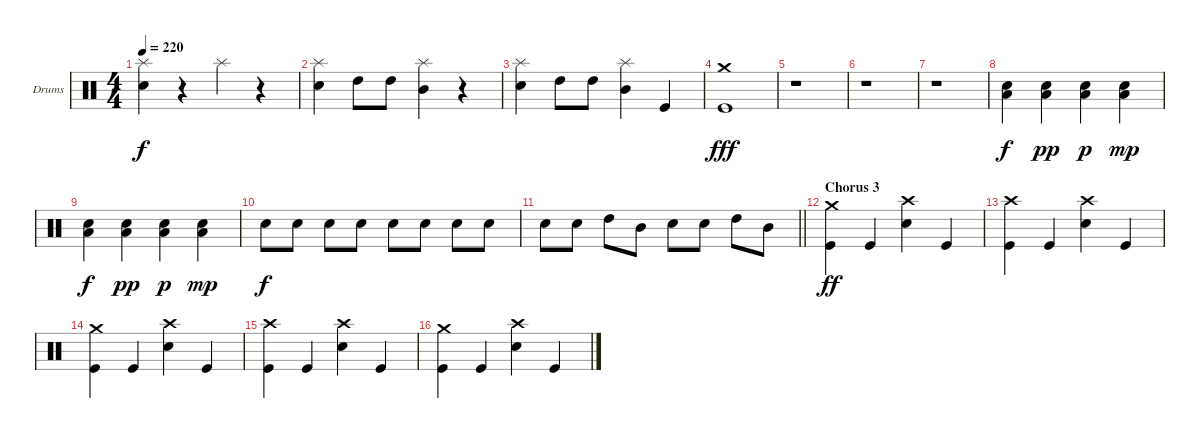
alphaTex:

\bracketExtendMode groupsimilarinstruments
\firstSystemTrackNameOrientation horizontal
\otherSystemsTrackNameOrientation horizontal
\track ("Drumkit" "Drums") {instrument percussion}
\staff {score}
\articulation defaults
\ts (4 4)
\tempo 220
\clef neutral
\ks c
("Splash (hit)" "Snare (hit) 2").4{dy f} r.4 "Splash (hit)".4 r.4 |
("Splash (hit)" "Snare (hit) 2").4 "High Tom (hit)".8 "High Tom (hit)".8 ("Splash (hit)" "Mid Tom (hit)").4 r.4 |
("Splash (hit)" "Snare (hit) 2").4 "High Tom (hit)".8 "High Tom (hit)".8 ("Splash (hit)" "Mid Tom (hit)").4 "Kick (hit)".4 |
("Crash medium (hit)" "Kick (hit)").1{dy fff} |
r.1 |
r.1 |
r.1 |
("Snare (hit) 2" "Low Tom (hit)").4{dy f} ("Snare (hit) 2" "Low Tom (hit)").4{dy pp} ("Snare (hit) 2" "Low Tom (hit)").4{dy p} ("Snare (hit) 2" "Low Tom (hit)").4{dy mp} |
("Snare (hit) 2" "Low Tom (hit)").4{dy f} ("Snare (hit) 2" "Low Tom (hit)").4{dy pp} ("Snare (hit) 2" "Low Tom (hit)").4{dy p} ("Snare (hit) 2" "Low Tom (hit)").4{dy mp} |
"Snare (hit) 2".8{dy f} "Snare (hit) 2".8 "Snare (hit) 2".8 "Snare (hit) 2".8 "Snare (hit) 2".8 "Snare (hit) 2".8 "Snare (hit) 2".8 "Snare (hit) 2".8 |
\barLineRight lightlight "Snare (hit) 2".8 "Snare (hit) 2".8 "High Tom (hit)".8 "Mid Tom (hit)".8 "Snare (hit) 2".8 "Snare (hit) 2".8 "High Tom (hit)".8 "Mid Tom (hit)".8
|
\section ("" "Chorus 3")
("Crash medium (hit)" "Kick (hit)").4{dy ff} "Kick (hit)".4 ("Crash high (hit)" "Snare (hit) 2").4 "Kick (hit)".4 |
("Crash high (hit)" "Kick (hit)").4 "Kick (hit)".4 ("Crash high (hit)" "Snare (hit) 2").4 "Kick (hit)".4 |
("Crash medium (hit)" "Kick (hit)").4 "Kick (hit)".4 ("Crash high (hit)" "Snare (hit) 2").4 "Kick (hit)".4 |
("Crash high (hit)" "Kick (hit)").4 "Kick (hit)".4 ("Crash high (hit)" "Snare (hit) 2").4 "Kick (hit)".4 |
("Crash medium (hit)" "Kick (hit)").4 "Kick (hit)".4 ("Crash high (hit)" "Snare (hit) 2").4 "Kick (hit)".4
